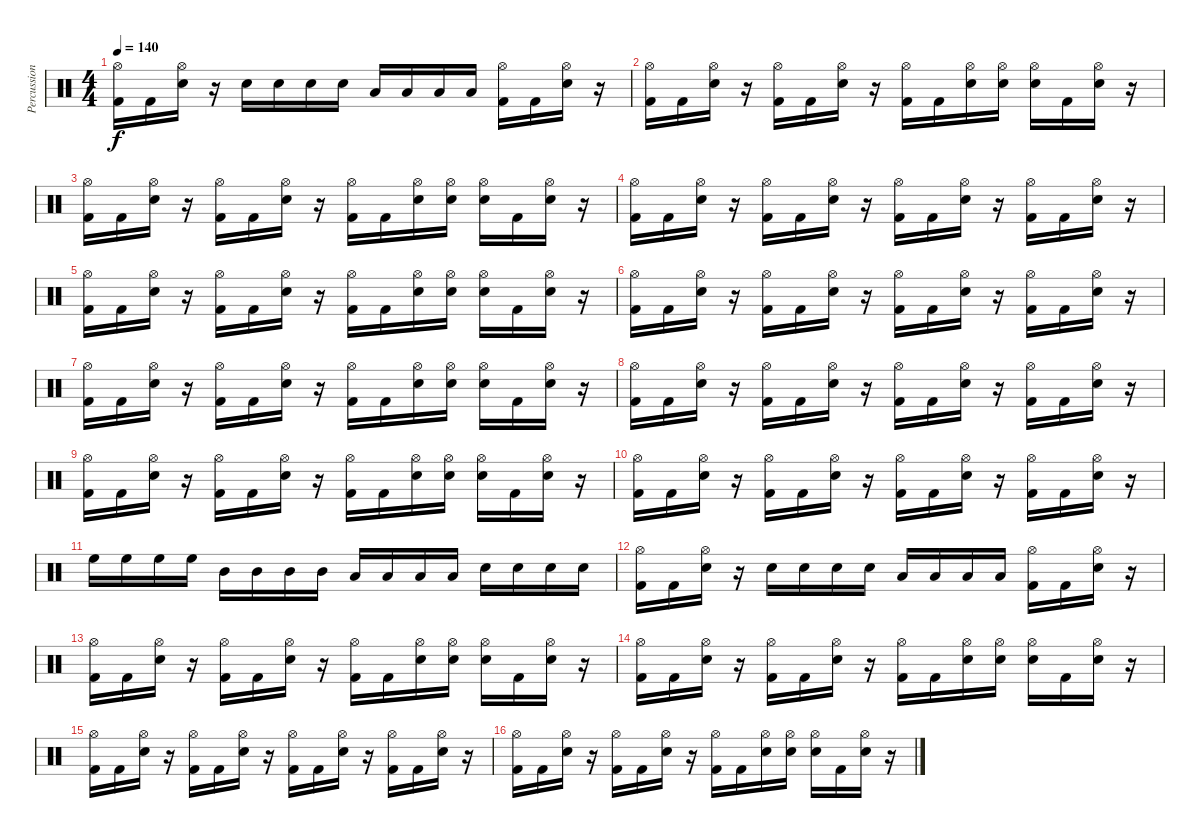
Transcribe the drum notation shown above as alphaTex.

\track ("Percussions" "Percussion") {instrument percussion}
\staff {score}
\articulation defaults
\ts (4 4)
\tempo 140
\clef neutral
\ks c
("Kick (hit) 2" "Hi-Hat (open)").16{dy f} "Kick (hit) 2".16 ("Electric Snare (hit)" "Hi-Hat (open)").16 r.16 "Electric Snare (hit)".16 "Electric Snare (hit)".16 "Electric Snare (hit)".16 "Electric Snare (hit)".16 "Low Tom (hit)".16 "Low Tom (hit)".16 "Low Tom (hit)".16 "Low Tom (hit)".16 ("Kick (hit) 2" "Hi-Hat (open)").16 "Kick (hit) 2".16 ("Electric Snare (hit)" "Hi-Hat (open)").16 r.16 |
("Kick (hit) 2" "Hi-Hat (open)").16 "Kick (hit) 2".16 ("Electric Snare (hit)" "Hi-Hat (open)").16 r.16 ("Kick (hit) 2" "Hi-Hat (open)").16 "Kick (hit) 2".16 ("Electric Snare (hit)" "Hi-Hat (open)").16 r.16 ("Kick (hit) 2" "Hi-Hat (open)").16 "Kick (hit) 2".16 ("Electric Snare (hit)" "Hi-Hat (open)").16 ("Electric Snare (hit)" "Hi-Hat (open)").16 ("Electric Snare (hit)" "Hi-Hat (open)").16 "Kick (hit) 2".16 ("Electric Snare (hit)" "Hi-Hat (open)").16 r.16 |
("Kick (hit) 2" "Hi-Hat (open)").16 "Kick (hit) 2".16 ("Electric Snare (hit)" "Hi-Hat (open)").16 r.16 ("Kick (hit) 2" "Hi-Hat (open)").16 "Kick (hit) 2".16 ("Electric Snare (hit)" "Hi-Hat (open)").16 r.16 ("Kick (hit) 2" "Hi-Hat (open)").16 "Kick (hit) 2".16 ("Electric Snare (hit)" "Hi-Hat (open)").16 ("Electric Snare (hit)" "Hi-Hat (open)").16 ("Electric Snare (hit)" "Hi-Hat (open)").16 "Kick (hit) 2".16 ("Electric Snare (hit)" "Hi-Hat (open)").16 r.16 |
("Kick (hit) 2" "Hi-Hat (open)").16 "Kick (hit) 2".16 ("Electric Snare (hit)" "Hi-Hat (open)").16 r.16 ("Kick (hit) 2" "Hi-Hat (open)").16 "Kick (hit) 2".16 ("Electric Snare (hit)" "Hi-Hat (open)").16 r.16 ("Kick (hit) 2" "Hi-Hat (open)").16 "Kick (hit) 2".16 ("Electric Snare (hit)" "Hi-Hat (open)").16 r.16 ("Kick (hit) 2" "Hi-Hat (open)").16 "Kick (hit) 2".16 ("Electric Snare (hit)" "Hi-Hat (open)").16 r.16 |
("Kick (hit) 2" "Hi-Hat (open)").16 "Kick (hit) 2".16 ("Electric Snare (hit)" "Hi-Hat (open)").16 r.16 ("Kick (hit) 2" "Hi-Hat (open)").16 "Kick (hit) 2".16 ("Electric Snare (hit)" "Hi-Hat (open)").16 r.16 ("Kick (hit) 2" "Hi-Hat (open)").16 "Kick (hit) 2".16 ("Electric Snare (hit)" "Hi-Hat (open)").16 ("Electric Snare (hit)" "Hi-Hat (open)").16 ("Electric Snare (hit)" "Hi-Hat (open)").16 "Kick (hit) 2".16 ("Electric Snare (hit)" "Hi-Hat (open)").16 r.16 |
("Kick (hit) 2" "Hi-Hat (open)").16 "Kick (hit) 2".16 ("Electric Snare (hit)" "Hi-Hat (open)").16 r.16 ("Kick (hit) 2" "Hi-Hat (open)").16 "Kick (hit) 2".16 ("Electric Snare (hit)" "Hi-Hat (open)").16 r.16 ("Kick (hit) 2" "Hi-Hat (open)").16 "Kick (hit) 2".16 ("Electric Snare (hit)" "Hi-Hat (open)").16 r.16 ("Kick (hit) 2" "Hi-Hat (open)").16 "Kick (hit) 2".16 ("Electric Snare (hit)" "Hi-Hat (open)").16 r.16 |
("Kick (hit) 2" "Hi-Hat (open)").16 "Kick (hit) 2".16 ("Electric Snare (hit)" "Hi-Hat (open)").16 r.16 ("Kick (hit) 2" "Hi-Hat (open)").16 "Kick (hit) 2".16 ("Electric Snare (hit)" "Hi-Hat (open)").16 r.16 ("Kick (hit) 2" "Hi-Hat (open)").16 "Kick (hit) 2".16 ("Electric Snare (hit)" "Hi-Hat (open)").16 ("Electric Snare (hit)" "Hi-Hat (open)").16 ("Electric Snare (hit)" "Hi-Hat (open)").16 "Kick (hit) 2".16 ("Electric Snare (hit)" "Hi-Hat (open)").16 r.16 |
("Kick (hit) 2" "Hi-Hat (open)").16 "Kick (hit) 2".16 ("Electric Snare (hit)" "Hi-Hat (open)").16 r.16 ("Kick (hit) 2" "Hi-Hat (open)").16 "Kick (hit) 2".16 ("Electric Snare (hit)" "Hi-Hat (open)").16 r.16 ("Kick (hit) 2" "Hi-Hat (open)").16 "Kick (hit) 2".16 ("Electric Snare (hit)" "Hi-Hat (open)").16 r.16 ("Kick (hit) 2" "Hi-Hat (open)").16 "Kick (hit) 2".16 ("Electric Snare (hit)" "Hi-Hat (open)").16 r.16 |
("Kick (hit) 2" "Hi-Hat (open)").16 "Kick (hit) 2".16 ("Electric Snare (hit)" "Hi-Hat (open)").16 r.16 ("Kick (hit) 2" "Hi-Hat (open)").16 "Kick (hit) 2".16 ("Electric Snare (hit)" "Hi-Hat (open)").16 r.16 ("Kick (hit) 2" "Hi-Hat (open)").16 "Kick (hit) 2".16 ("Electric Snare (hit)" "Hi-Hat (open)").16 ("Electric Snare (hit)" "Hi-Hat (open)").16 ("Electric Snare (hit)" "Hi-Hat (open)").16 "Kick (hit) 2".16 ("Electric Snare (hit)" "Hi-Hat (open)").16 r.16 |
("Kick (hit) 2" "Hi-Hat (open)").16 "Kick (hit) 2".16 ("Electric Snare (hit)" "Hi-Hat (open)").16 r.16 ("Kick (hit) 2" "Hi-Hat (open)").16 "Kick (hit) 2".16 ("Electric Snare (hit)" "Hi-Hat (open)").16 r.16 ("Kick (hit) 2" "Hi-Hat (open)").16 "Kick (hit) 2".16 ("Electric Snare (hit)" "Hi-Hat (open)").16 r.16 ("Kick (hit) 2" "Hi-Hat (open)").16 "Kick (hit) 2".16 ("Electric Snare (hit)" "Hi-Hat (open)").16 r.16 |
"High Floor Tom (hit)".16 "High Floor Tom (hit)".16 "High Floor Tom (hit)".16 "High Floor Tom (hit)".16 "Mid Tom (hit)".16 "Mid Tom (hit)".16 "Mid Tom (hit)".16 "Mid Tom (hit)".16 "Low Tom (hit)".16 "Low Tom (hit)".16 "Low Tom (hit)".16 "Low Tom (hit)".16 "Electric Snare (hit)".16 "Electric Snare (hit)".16 "Electric Snare (hit)".16 "Electric Snare (hit)".16 |
("Kick (hit) 2" "Hi-Hat (open)").16 "Kick (hit) 2".16 ("Electric Snare (hit)" "Hi-Hat (open)").16 r.16 "Electric Snare (hit)".16 "Electric Snare (hit)".16 "Electric Snare (hit)".16 "Electric Snare (hit)".16 "Low Tom (hit)".16 "Low Tom (hit)".16 "Low Tom (hit)".16 "Low Tom (hit)".16 ("Kick (hit) 2" "Hi-Hat (open)").16 "Kick (hit) 2".16 ("Electric Snare (hit)" "Hi-Hat (open)").16 r.16 |
("Kick (hit) 2" "Hi-Hat (open)").16 "Kick (hit) 2".16 ("Electric Snare (hit)" "Hi-Hat (open)").16 r.16 ("Kick (hit) 2" "Hi-Hat (open)").16 "Kick (hit) 2".16 ("Electric Snare (hit)" "Hi-Hat (open)").16 r.16 ("Kick (hit) 2" "Hi-Hat (open)").16 "Kick (hit) 2".16 ("Electric Snare (hit)" "Hi-Hat (open)").16 ("Electric Snare (hit)" "Hi-Hat (open)").16 ("Electric Snare (hit)" "Hi-Hat (open)").16 "Kick (hit) 2".16 ("Electric Snare (hit)" "Hi-Hat (open)").16 r.16 |
("Kick (hit) 2" "Hi-Hat (open)").16 "Kick (hit) 2".16 ("Electric Snare (hit)" "Hi-Hat (open)").16 r.16 ("Kick (hit) 2" "Hi-Hat (open)").16 "Kick (hit) 2".16 ("Electric Snare (hit)" "Hi-Hat (open)").16 r.16 ("Kick (hit) 2" "Hi-Hat (open)").16 "Kick (hit) 2".16 ("Electric Snare (hit)" "Hi-Hat (open)").16 ("Electric Snare (hit)" "Hi-Hat (open)").16 ("Electric Snare (hit)" "Hi-Hat (open)").16 "Kick (hit) 2".16 ("Electric Snare (hit)" "Hi-Hat (open)").16 r.16 |
("Kick (hit) 2" "Hi-Hat (open)").16 "Kick (hit) 2".16 ("Electric Snare (hit)" "Hi-Hat (open)").16 r.16 ("Kick (hit) 2" "Hi-Hat (open)").16 "Kick (hit) 2".16 ("Electric Snare (hit)" "Hi-Hat (open)").16 r.16 ("Kick (hit) 2" "Hi-Hat (open)").16 "Kick (hit) 2".16 ("Electric Snare (hit)" "Hi-Hat (open)").16 r.16 ("Kick (hit) 2" "Hi-Hat (open)").16 "Kick (hit) 2".16 ("Electric Snare (hit)" "Hi-Hat (open)").16 r.16 |
("Kick (hit) 2" "Hi-Hat (open)").16 "Kick (hit) 2".16 ("Electric Snare (hit)" "Hi-Hat (open)").16 r.16 ("Kick (hit) 2" "Hi-Hat (open)").16 "Kick (hit) 2".16 ("Electric Snare (hit)" "Hi-Hat (open)").16 r.16 ("Kick (hit) 2" "Hi-Hat (open)").16 "Kick (hit) 2".16 ("Electric Snare (hit)" "Hi-Hat (open)").16 ("Electric Snare (hit)" "Hi-Hat (open)").16 ("Electric Snare (hit)" "Hi-Hat (open)").16 "Kick (hit) 2".16 ("Electric Snare (hit)" "Hi-Hat (open)").16 r.16
